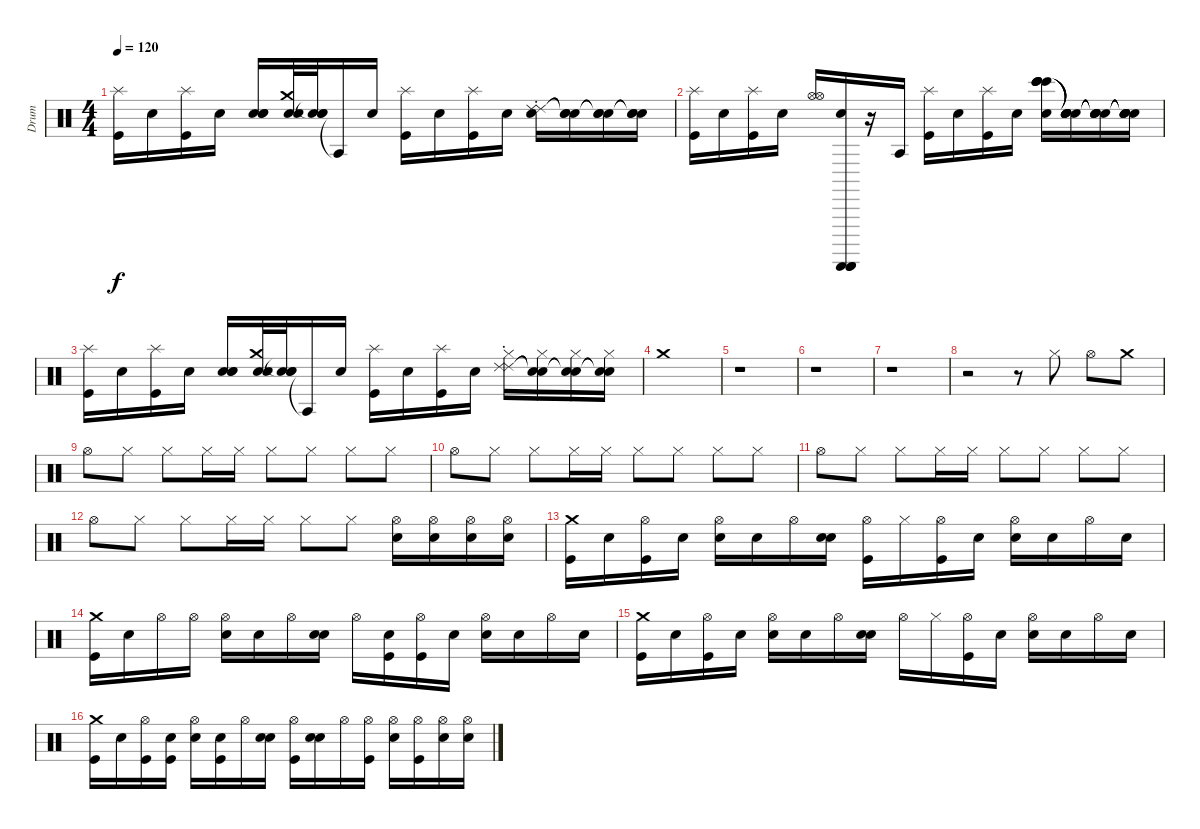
\track ("Drum" "Drum") {instrument percussion}
\staff {score}
\articulation defaults
\ts (4 4)
\tempo 120
\clef neutral
\ks c
("Splash (hit)" "Kick (hit)").16{dy f} "Snare (hit)".16 ("Splash (hit)" "Kick (hit)").16 "Snare (hit)".16 ("Snare (hit)" "Snare (hit)" "Snare (hit)").16 ("Crash medium (hit)" "Snare (hit)" "Snare (hit)").32 ("Snare (hit)"{t} "Snare (hit)" "Snare (hit)").32 "Agogo tow (hit)"{t}.16 "Snare (hit)".16 ("Splash (hit)" "Kick (hit)").16 "Snare (hit)".16 ("Splash (hit)" "Kick (hit)").16 "Snare (hit)".16 ("Snare (hit)" "Ride (choke) 2" "Ride (choke) 2").16 ("Snare (hit)" "Snare (hit)"{t} "Snare (hit)"{t}).16 ("Snare (hit)" "Snare (hit)"{t} "Snare (hit)"{t}).16 ("Snare (hit)" "Snare (hit)"{t} "Snare (hit)"{t}).16 |
("Splash (hit)" "Kick (hit)").16 "Snare (hit)".16 ("Splash (hit)" "Kick (hit)").16 "Snare (hit)".16 ("Hi-Hat (open)" "Hi-Hat (open)").16 ("Snare (hit)" "Guiro (scrap-return)" "Guiro (scrap-return)" "Guiro (scrap-return)").16 r.16 "Agogo tow (hit)".16 ("Splash (hit)" "Kick (hit)").16 "Snare (hit)".16 ("Splash (hit)" "Kick (hit)").16 "Snare (hit)".16 ("Snare (hit)" "Bongo High (hit)" "Bongo High (hit)" "Bongo High (hit)" "Bongo High (hit)").16 ("Snare (hit)" "Snare (hit)"{t} "Snare (hit)"{t} "Snare (hit)"{t} "Snare (hit)"{t}).16 ("Snare (hit)" "Snare (hit)"{t} "Snare (hit)"{t} "Snare (hit)"{t} "Snare (hit)"{t}).16 ("Snare (hit)" "Snare (hit)"{t} "Snare (hit)"{t} "Snare (hit)"{t} "Snare (hit)"{t}).16 |
("Splash (hit)" "Kick (hit)").16 "Snare (hit)".16 ("Splash (hit)" "Kick (hit)").16 "Snare (hit)".16 ("Snare (hit)" "Snare (hit)" "Snare (hit)").16 ("Crash medium (hit)" "Snare (hit)" "Snare (hit)").32 ("Snare (hit)"{t} "Snare (hit)" "Snare (hit)").32 "Agogo tow (hit)"{t}.16 "Snare (hit)".16 ("Splash (hit)" "Kick (hit)").16 "Snare (hit)".16 ("Splash (hit)" "Kick (hit)").16 "Snare (hit)".16 ("Hi-Hat (closed)" "Ride (choke) 2" "Ride (choke) 2").16 ("Hi-Hat (closed)" "Snare (hit)"{t} "Snare (hit)"{t}).16 ("Hi-Hat (closed)" "Snare (hit)"{t} "Snare (hit)"{t}).16 ("Hi-Hat (closed)" "Snare (hit)"{t} "Snare (hit)"{t}).16 |
"Crash medium (hit)".1 |
r.1 |
r.1 |
r.1 |
r.2 r.8 "Hi-Hat (closed)".8 "Hi-Hat (open)".8 "Crash medium (hit)".8 |
"Hi-Hat (open)".8 "Hi-Hat (closed)".8 "Hi-Hat (closed)".8 "Hi-Hat (closed)".16 "Hi-Hat (closed)".16 "Hi-Hat (closed)".8 "Hi-Hat (closed)".8 "Hi-Hat (closed)".8 "Hi-Hat (closed)".8 |
"Hi-Hat (open)".8 "Hi-Hat (closed)".8 "Hi-Hat (closed)".8 "Hi-Hat (closed)".16 "Hi-Hat (closed)".16 "Hi-Hat (closed)".8 "Hi-Hat (closed)".8 "Hi-Hat (closed)".8 "Hi-Hat (closed)".8 |
"Hi-Hat (open)".8 "Hi-Hat (closed)".8 "Hi-Hat (closed)".8 "Hi-Hat (closed)".16 "Hi-Hat (closed)".16 "Hi-Hat (closed)".8 "Hi-Hat (closed)".8 "Hi-Hat (closed)".8 "Hi-Hat (closed)".8 |
"Hi-Hat (open)".8 "Hi-Hat (closed)".8 "Hi-Hat (closed)".8 "Hi-Hat (closed)".16 "Hi-Hat (closed)".16 "Hi-Hat (closed)".8 "Hi-Hat (closed)".8 ("Hi-Hat (open)" "Electric Snare (hit)").16 ("Hi-Hat (open)" "Electric Snare (hit)").16 ("Hi-Hat (open)" "Electric Snare (hit)").16 ("Hi-Hat (open)" "Electric Snare (hit)").16 |
("Crash medium (hit)" "Kick (hit)").16 "Snare (hit)".16 ("Hi-Hat (open)" "Kick (hit)").16 "Snare (hit)".16 ("Hi-Hat (open)" "Electric Snare (hit)").16 "Snare (hit)".16 "Hi-Hat (open)".16 ("Snare (hit)" "Electric Snare (hit)").16 ("Hi-Hat (open)" "Kick (hit)").16 "Hi-Hat (closed)".16 ("Hi-Hat (open)" "Kick (hit)").16 "Snare (hit)".16 ("Hi-Hat (open)" "Electric Snare (hit)").16 "Snare (hit)".16 "Hi-Hat (open)".16 "Snare (hit)".16 |
("Crash medium (hit)" "Kick (hit)").16 "Snare (hit)".16 "Hi-Hat (open)".16 "Hi-Hat (open)".16 ("Hi-Hat (open)" "Electric Snare (hit)").16 "Snare (hit)".16 "Hi-Hat (open)".16 ("Snare (hit)" "Electric Snare (hit)").16 "Hi-Hat (open)".16 ("Snare (hit)" "Kick (hit)").16 ("Hi-Hat (open)" "Kick (hit)").16 "Snare (hit)".16 ("Hi-Hat (open)" "Electric Snare (hit)").16 "Snare (hit)".16 "Hi-Hat (open)".16 "Snare (hit)".16 |
("Crash medium (hit)" "Kick (hit)").16 "Snare (hit)".16 ("Hi-Hat (open)" "Kick (hit)").16 "Snare (hit)".16 ("Hi-Hat (open)" "Electric Snare (hit)").16 "Snare (hit)".16 "Hi-Hat (open)".16 ("Snare (hit)" "Electric Snare (hit)").16 "Hi-Hat (open)".16 "Hi-Hat (closed)".16 ("Hi-Hat (open)" "Kick (hit)").16 "Snare (hit)".16 ("Hi-Hat (open)" "Electric Snare (hit)").16 "Snare (hit)".16 "Hi-Hat (open)".16 "Snare (hit)".16 |
("Crash medium (hit)" "Kick (hit)").16 "Snare (hit)".16 ("Hi-Hat (open)" "Kick (hit)").16 ("Snare (hit)" "Kick (hit)").16 ("Hi-Hat (open)" "Electric Snare (hit)").16 ("Snare (hit)" "Kick (hit)").16 "Hi-Hat (open)".16 ("Snare (hit)" "Electric Snare (hit)").16 ("Hi-Hat (open)" "Kick (hit)").16 ("Snare (hit)" "Electric Snare (hit)").16 "Hi-Hat (open)".16 ("Hi-Hat (open)" "Kick (hit)").16 ("Hi-Hat (open)" "Electric Snare (hit)").16 ("Hi-Hat (open)" "Kick (hit)").16 ("Hi-Hat (open)" "Electric Snare (hit)").16 ("Hi-Hat (open)" "Electric Snare (hit)").16
